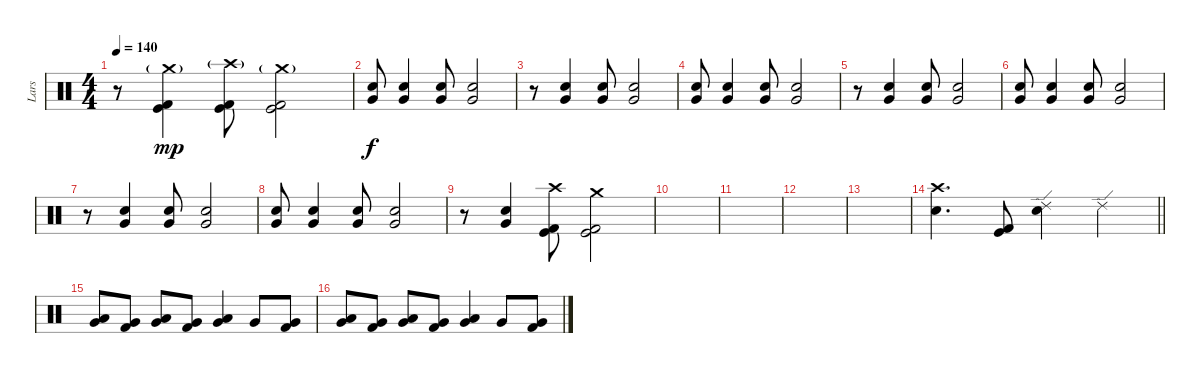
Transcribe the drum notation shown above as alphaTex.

\track ("Lars" "Lars") {instrument percussion}
\staff {score}
\articulation defaults
\ts (4 4)
\tempo 140
\clef neutral
\ks c
r.8{dy mp} ("Crash medium (hit)"{g} "Kick (hit)" "Kick (hit) 2").4 ("Crash high (hit)"{g} "Kick (hit)" "Kick (hit) 2").8 ("Crash medium (hit)"{g} "Kick (hit)" "Kick (hit) 2").2 |
("Electric Snare (hit)" "Very Low Tom (hit)").8{dy f} ("Electric Snare (hit)" "Very Low Tom (hit)").4 ("Electric Snare (hit)" "Very Low Tom (hit)").8 ("Electric Snare (hit)" "Very Low Tom (hit)").2 |
r.8 ("Electric Snare (hit)" "Very Low Tom (hit)").4 ("Electric Snare (hit)" "Very Low Tom (hit)").8 ("Electric Snare (hit)" "Very Low Tom (hit)").2 |
("Electric Snare (hit)" "Very Low Tom (hit)").8 ("Electric Snare (hit)" "Very Low Tom (hit)").4 ("Electric Snare (hit)" "Very Low Tom (hit)").8 ("Electric Snare (hit)" "Very Low Tom (hit)").2 |
r.8 ("Electric Snare (hit)" "Very Low Tom (hit)").4 ("Electric Snare (hit)" "Very Low Tom (hit)").8 ("Electric Snare (hit)" "Very Low Tom (hit)").2 |
("Electric Snare (hit)" "Very Low Tom (hit)").8 ("Electric Snare (hit)" "Very Low Tom (hit)").4 ("Electric Snare (hit)" "Very Low Tom (hit)").8 ("Electric Snare (hit)" "Very Low Tom (hit)").2 |
r.8 ("Electric Snare (hit)" "Very Low Tom (hit)").4 ("Electric Snare (hit)" "Very Low Tom (hit)").8 ("Electric Snare (hit)" "Very Low Tom (hit)").2 |
("Electric Snare (hit)" "Very Low Tom (hit)").8 ("Electric Snare (hit)" "Very Low Tom (hit)").4 ("Electric Snare (hit)" "Very Low Tom (hit)").8 ("Electric Snare (hit)" "Very Low Tom (hit)").2 |
r.8 ("Electric Snare (hit)" "Very Low Tom (hit)").4 ("Crash high (hit)" "Kick (hit)" "Kick (hit) 2").8 ("Crash medium (hit)" "Kick (hit)" "Kick (hit) 2").2 |
|
|
|
|
\barLineRight lightlight
("Crash high (hit)" "Electric Snare (hit)").4{d} ("Kick (hit)" "Kick (hit) 2").8 ("Ride (edge) 2" "Electric Snare (hit)").4 "Ride (edge) 2".4 |
\section ("" "")
("Low Tom (hit)" "Very Low Tom (hit)").8 ("Very Low Tom (hit)" "Kick (hit) 2").8 ("Low Tom (hit)" "Very Low Tom (hit)").8 ("Very Low Tom (hit)" "Kick (hit) 2").8 ("Low Tom (hit)" "Very Low Tom (hit)").4 "Very Low Tom (hit)".8 ("Very Low Tom (hit)" "Kick (hit) 2").8 |
("Low Tom (hit)" "Very Low Tom (hit)").8 ("Very Low Tom (hit)" "Kick (hit) 2").8 ("Low Tom (hit)" "Very Low Tom (hit)").8 ("Very Low Tom (hit)" "Kick (hit) 2").8 ("Low Tom (hit)" "Very Low Tom (hit)").4 "Very Low Tom (hit)".8 ("Very Low Tom (hit)" "Kick (hit) 2").8
